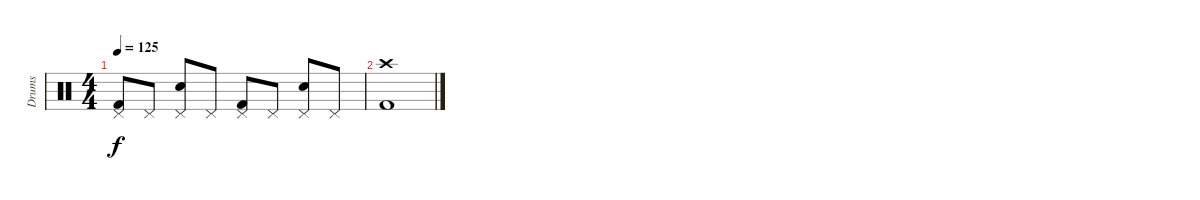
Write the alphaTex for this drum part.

\track ("Drums" "Drums") {instrument percussion}
\staff {score}
\articulation defaults
\ts (4 4)
\tempo 125
\clef neutral
\ks c
("Pedal Hi-Hat (hit)" "Kick (hit) 2").8{dy f} "Pedal Hi-Hat (hit)".8 ("Pedal Hi-Hat (hit)" "Snare (hit) 2").8 "Pedal Hi-Hat (hit)".8 ("Pedal Hi-Hat (hit)" "Kick (hit) 2").8 "Pedal Hi-Hat (hit)".8 ("Pedal Hi-Hat (hit)" "Snare (hit) 2").8 "Pedal Hi-Hat (hit)".8 |
("Crash high (hit)" "Kick (hit) 2").1
